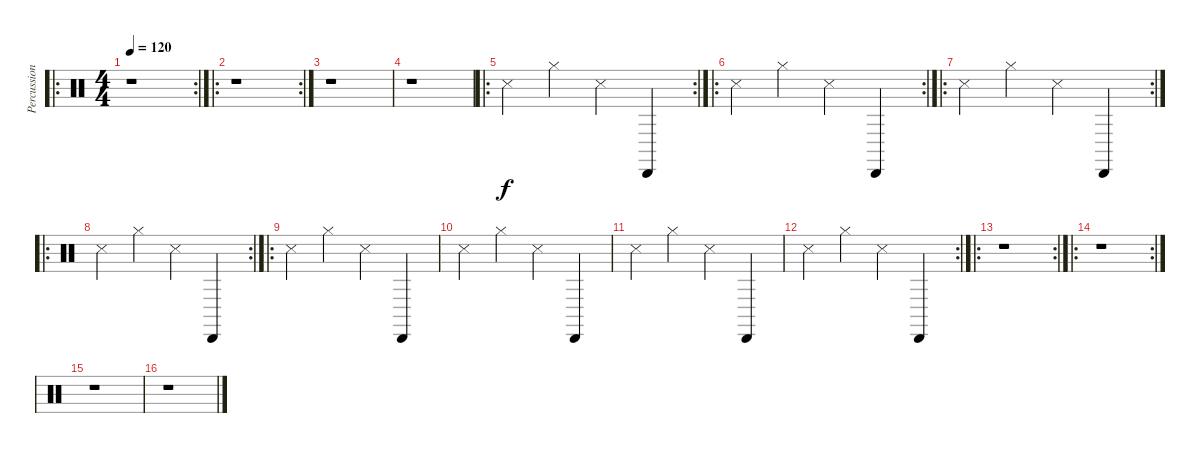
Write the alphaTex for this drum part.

\track ("Percussions" "Percussion") {instrument percussion}
\staff {score}
\articulation defaults
\ro
\rc 2
\ts (4 4)
\tempo 120
\clef neutral
\ks c
r.1{dy f} |
\ro
\rc 2
r.1 |
r.1 |
r.1 |
\ro
\rc 2 "Snare (side stick) 3".4 "Hi-Hat (closed)".4 "Snare (side stick) 3".4 "Cabasa (hit)".4
|
\ro
\rc 2 "Snare (side stick) 3".4 "Hi-Hat (closed)".4 "Snare (side stick) 3".4 "Cabasa (hit)".4
|
\ro
\rc 2 "Snare (side stick) 3".4 "Hi-Hat (closed)".4 "Snare (side stick) 3".4 "Cabasa (hit)".4
|
\ro
\rc 2 "Snare (side stick) 3".4 "Hi-Hat (closed)".4 "Snare (side stick) 3".4 "Cabasa (hit)".4
|
\ro "Snare (side stick) 3".4 "Hi-Hat (closed)".4 "Snare (side stick) 3".4 "Cabasa (hit)".4
|
"Snare (side stick) 3".4 "Hi-Hat (closed)".4 "Snare (side stick) 3".4 "Cabasa (hit)".4 |
"Snare (side stick) 3".4 "Hi-Hat (closed)".4 "Snare (side stick) 3".4 "Cabasa (hit)".4 |
\rc 2 "Snare (side stick) 3".4 "Hi-Hat (closed)".4 "Snare (side stick) 3".4 "Cabasa (hit)".4
|
\ro
\rc 2
r.1 |
\ro
\rc 2
r.1 |
r.1 |
r.1
